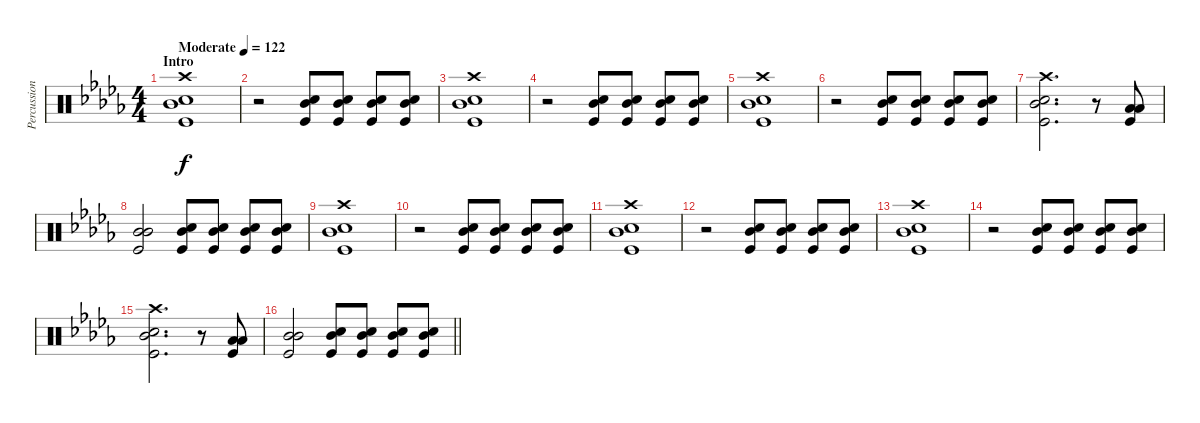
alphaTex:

\track ("Percussion" "Percussion") {instrument percussion}
\staff {score}
\articulation defaults
\ts (4 4)
\section ("" "Intro")
\tempo (122 "Moderate")
\clef neutral
\ks bbminor
("Crash high (hit)" "Snare (hit) 2" "Mid Tom (hit)" "Kick (hit)").1{dy f} |
r.2 ("Snare (hit) 2" "Mid Tom (hit)" "Kick (hit)").8 ("Snare (hit) 2" "Mid Tom (hit)" "Kick (hit)").8 ("Snare (hit) 2" "Mid Tom (hit)" "Kick (hit)").8 ("Snare (hit) 2" "Mid Tom (hit)" "Kick (hit)").8 |
("Crash high (hit)" "Snare (hit) 2" "Mid Tom (hit)" "Kick (hit)").1 |
r.2 ("Snare (hit) 2" "Mid Tom (hit)" "Kick (hit)").8 ("Snare (hit) 2" "Mid Tom (hit)" "Kick (hit)").8 ("Snare (hit) 2" "Mid Tom (hit)" "Kick (hit)").8 ("Snare (hit) 2" "Mid Tom (hit)" "Kick (hit)").8 |
("Crash high (hit)" "Snare (hit) 2" "Mid Tom (hit)" "Kick (hit)").1 |
r.2 ("Snare (hit) 2" "Mid Tom (hit)" "Kick (hit)").8 ("Snare (hit) 2" "Mid Tom (hit)" "Kick (hit)").8 ("Snare (hit) 2" "Mid Tom (hit)" "Kick (hit)").8 ("Snare (hit) 2" "Mid Tom (hit)" "Kick (hit)").8 |
("Crash high (hit)" "Snare (hit) 2" "Mid Tom (hit)" "Kick (hit)").2{d} r.8 ("Low Tom (hit)" "Low Tom (hit)" "Kick (hit)").8{volume 12} |
("Mid Tom (hit)" "Mid Tom (hit)" "Kick (hit)").2 ("Snare (hit) 2" "Mid Tom (hit)" "Kick (hit)").8{volume 7} ("Snare (hit) 2" "Mid Tom (hit)" "Kick (hit)").8 ("Snare (hit) 2" "Mid Tom (hit)" "Kick (hit)").8 ("Snare (hit) 2" "Mid Tom (hit)" "Kick (hit)").8 |
("Crash high (hit)" "Snare (hit) 2" "Mid Tom (hit)" "Kick (hit)").1 |
r.2 ("Snare (hit) 2" "Mid Tom (hit)" "Kick (hit)").8 ("Snare (hit) 2" "Mid Tom (hit)" "Kick (hit)").8 ("Snare (hit) 2" "Mid Tom (hit)" "Kick (hit)").8 ("Snare (hit) 2" "Mid Tom (hit)" "Kick (hit)").8 |
("Crash high (hit)" "Snare (hit) 2" "Mid Tom (hit)" "Kick (hit)").1 |
r.2 ("Snare (hit) 2" "Mid Tom (hit)" "Kick (hit)").8 ("Snare (hit) 2" "Mid Tom (hit)" "Kick (hit)").8 ("Snare (hit) 2" "Mid Tom (hit)" "Kick (hit)").8 ("Snare (hit) 2" "Mid Tom (hit)" "Kick (hit)").8 |
("Crash high (hit)" "Snare (hit) 2" "Mid Tom (hit)" "Kick (hit)").1 |
r.2 ("Snare (hit) 2" "Mid Tom (hit)" "Kick (hit)").8 ("Snare (hit) 2" "Mid Tom (hit)" "Kick (hit)").8 ("Snare (hit) 2" "Mid Tom (hit)" "Kick (hit)").8 ("Snare (hit) 2" "Mid Tom (hit)" "Kick (hit)").8 |
("Crash high (hit)" "Snare (hit) 2" "Mid Tom (hit)" "Kick (hit)").2{d} r.8 ("Low Tom (hit)" "Low Tom (hit)" "Kick (hit)").8{volume 12} |
\barLineRight lightlight
("Mid Tom (hit)" "Mid Tom (hit)" "Kick (hit)").2 ("Snare (hit) 2" "Mid Tom (hit)" "Kick (hit)").8{volume 7} ("Snare (hit) 2" "Mid Tom (hit)" "Kick (hit)").8 ("Snare (hit) 2" "Mid Tom (hit)" "Kick (hit)").8 ("Snare (hit) 2" "Mid Tom (hit)" "Kick (hit)").8
